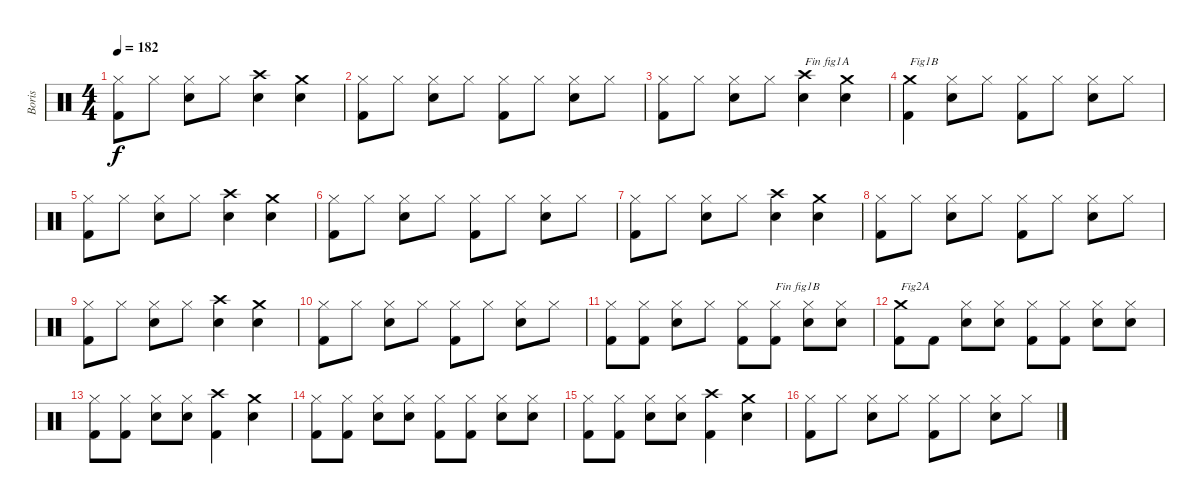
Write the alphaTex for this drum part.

\track ("Boris" "Boris") {instrument percussion}
\staff {score}
\articulation defaults
\ts (4 4)
\tempo 182
\clef neutral
\ks c
("Kick (hit) 2" "Hi-Hat (closed)").8{dy f} "Hi-Hat (closed)".8 ("Electric Snare (hit)" "Hi-Hat (closed)").8 "Hi-Hat (closed)".8 ("Electric Snare (hit)" "Crash high (hit)").4 ("Electric Snare (hit)" "Crash medium (hit)").4 |
("Kick (hit) 2" "Hi-Hat (closed)").8 "Hi-Hat (closed)".8 ("Electric Snare (hit)" "Hi-Hat (closed)").8 "Hi-Hat (closed)".8 ("Kick (hit) 2" "Hi-Hat (closed)").8 "Hi-Hat (closed)".8 ("Electric Snare (hit)" "Hi-Hat (closed)").8 "Hi-Hat (closed)".8 |
("Kick (hit) 2" "Hi-Hat (closed)").8 "Hi-Hat (closed)".8 ("Electric Snare (hit)" "Hi-Hat (closed)").8 "Hi-Hat (closed)".8 ("Electric Snare (hit)" "Crash high (hit)").4{txt "Fin fig1A"} ("Electric Snare (hit)" "Crash medium (hit)").4 |
("Kick (hit) 2" "Crash medium (hit)").4{txt "Fig1B"} ("Electric Snare (hit)" "Hi-Hat (closed)").8 "Hi-Hat (closed)".8 ("Kick (hit) 2" "Hi-Hat (closed)").8 "Hi-Hat (closed)".8 ("Electric Snare (hit)" "Hi-Hat (closed)").8 "Hi-Hat (closed)".8 |
("Kick (hit) 2" "Hi-Hat (closed)").8 "Hi-Hat (closed)".8 ("Electric Snare (hit)" "Hi-Hat (closed)").8 "Hi-Hat (closed)".8 ("Electric Snare (hit)" "Crash high (hit)").4 ("Electric Snare (hit)" "Crash medium (hit)").4 |
("Kick (hit) 2" "Hi-Hat (closed)").8 "Hi-Hat (closed)".8 ("Electric Snare (hit)" "Hi-Hat (closed)").8 "Hi-Hat (closed)".8 ("Kick (hit) 2" "Hi-Hat (closed)").8 "Hi-Hat (closed)".8 ("Electric Snare (hit)" "Hi-Hat (closed)").8 "Hi-Hat (closed)".8 |
("Kick (hit) 2" "Hi-Hat (closed)").8 "Hi-Hat (closed)".8 ("Electric Snare (hit)" "Hi-Hat (closed)").8 "Hi-Hat (closed)".8 ("Electric Snare (hit)" "Crash high (hit)").4 ("Electric Snare (hit)" "Crash medium (hit)").4 |
("Kick (hit) 2" "Hi-Hat (closed)").8 "Hi-Hat (closed)".8 ("Electric Snare (hit)" "Hi-Hat (closed)").8 "Hi-Hat (closed)".8 ("Kick (hit) 2" "Hi-Hat (closed)").8 "Hi-Hat (closed)".8 ("Electric Snare (hit)" "Hi-Hat (closed)").8 "Hi-Hat (closed)".8 |
("Kick (hit) 2" "Hi-Hat (closed)").8 "Hi-Hat (closed)".8 ("Electric Snare (hit)" "Hi-Hat (closed)").8 "Hi-Hat (closed)".8 ("Electric Snare (hit)" "Crash high (hit)").4 ("Electric Snare (hit)" "Crash medium (hit)").4 |
("Kick (hit) 2" "Hi-Hat (closed)").8 "Hi-Hat (closed)".8 ("Electric Snare (hit)" "Hi-Hat (closed)").8 "Hi-Hat (closed)".8 ("Kick (hit) 2" "Hi-Hat (closed)").8 "Hi-Hat (closed)".8 ("Electric Snare (hit)" "Hi-Hat (closed)").8 "Hi-Hat (closed)".8 |
("Kick (hit) 2" "Hi-Hat (closed)").8 ("Kick (hit) 2" "Hi-Hat (closed)").8 ("Electric Snare (hit)" "Hi-Hat (closed)").8 "Hi-Hat (closed)".8 ("Kick (hit) 2" "Hi-Hat (closed)").8 ("Kick (hit) 2" "Hi-Hat (closed)").8{txt "Fin fig1B"} ("Electric Snare (hit)" "Hi-Hat (closed)").8 ("Electric Snare (hit)" "Hi-Hat (closed)").8 |
("Kick (hit) 2" "Crash medium (hit)").8{txt "Fig2A"} "Kick (hit) 2".8 ("Electric Snare (hit)" "Hi-Hat (closed)").8 ("Electric Snare (hit)" "Hi-Hat (closed)").8 ("Kick (hit) 2" "Hi-Hat (closed)").8 ("Kick (hit) 2" "Hi-Hat (closed)").8 ("Electric Snare (hit)" "Hi-Hat (closed)").8 ("Electric Snare (hit)" "Hi-Hat (closed)").8 |
("Kick (hit) 2" "Hi-Hat (closed)").8 ("Kick (hit) 2" "Hi-Hat (closed)").8 ("Electric Snare (hit)" "Hi-Hat (closed)").8 ("Electric Snare (hit)" "Hi-Hat (closed)").8 ("Kick (hit) 2" "Crash high (hit)").4 ("Electric Snare (hit)" "Crash medium (hit)").4 |
("Kick (hit) 2" "Hi-Hat (closed)").8 ("Kick (hit) 2" "Hi-Hat (closed)").8 ("Electric Snare (hit)" "Hi-Hat (closed)").8 ("Electric Snare (hit)" "Hi-Hat (closed)").8 ("Kick (hit) 2" "Hi-Hat (closed)").8 ("Kick (hit) 2" "Hi-Hat (closed)").8 ("Electric Snare (hit)" "Hi-Hat (closed)").8 ("Electric Snare (hit)" "Hi-Hat (closed)").8 |
("Kick (hit) 2" "Hi-Hat (closed)").8 ("Kick (hit) 2" "Hi-Hat (closed)").8 ("Electric Snare (hit)" "Hi-Hat (closed)").8 ("Electric Snare (hit)" "Hi-Hat (closed)").8 ("Kick (hit) 2" "Crash high (hit)").4 ("Electric Snare (hit)" "Crash medium (hit)").4 |
("Kick (hit) 2" "Hi-Hat (closed)").8 "Hi-Hat (closed)".8 ("Electric Snare (hit)" "Hi-Hat (closed)").8 "Hi-Hat (closed)".8 ("Kick (hit) 2" "Hi-Hat (closed)").8 "Hi-Hat (closed)".8 ("Electric Snare (hit)" "Hi-Hat (closed)").8 "Hi-Hat (closed)".8
